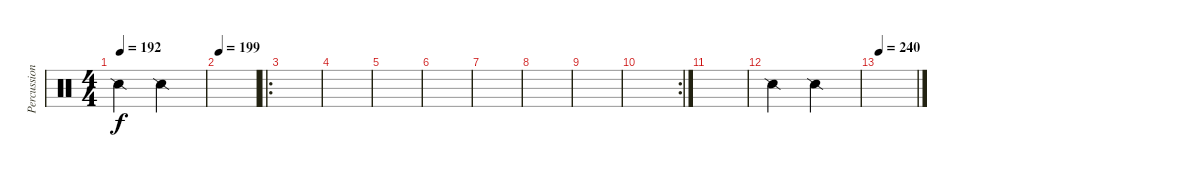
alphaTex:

\track ("Percussion" "Percussion") {instrument percussion}
\staff {score}
\articulation defaults
\ts (4 4)
\tempo 192
\clef neutral
\ks c "Snare (side stick) 2".2{dy f} "Snare (side stick) 2".2
|
\tempo 199
|
\ro
|
|
|
|
|
|
|
\rc 2
|
|
"Snare (side stick) 2".2 "Snare (side stick) 2".2 |
\tempo 240
